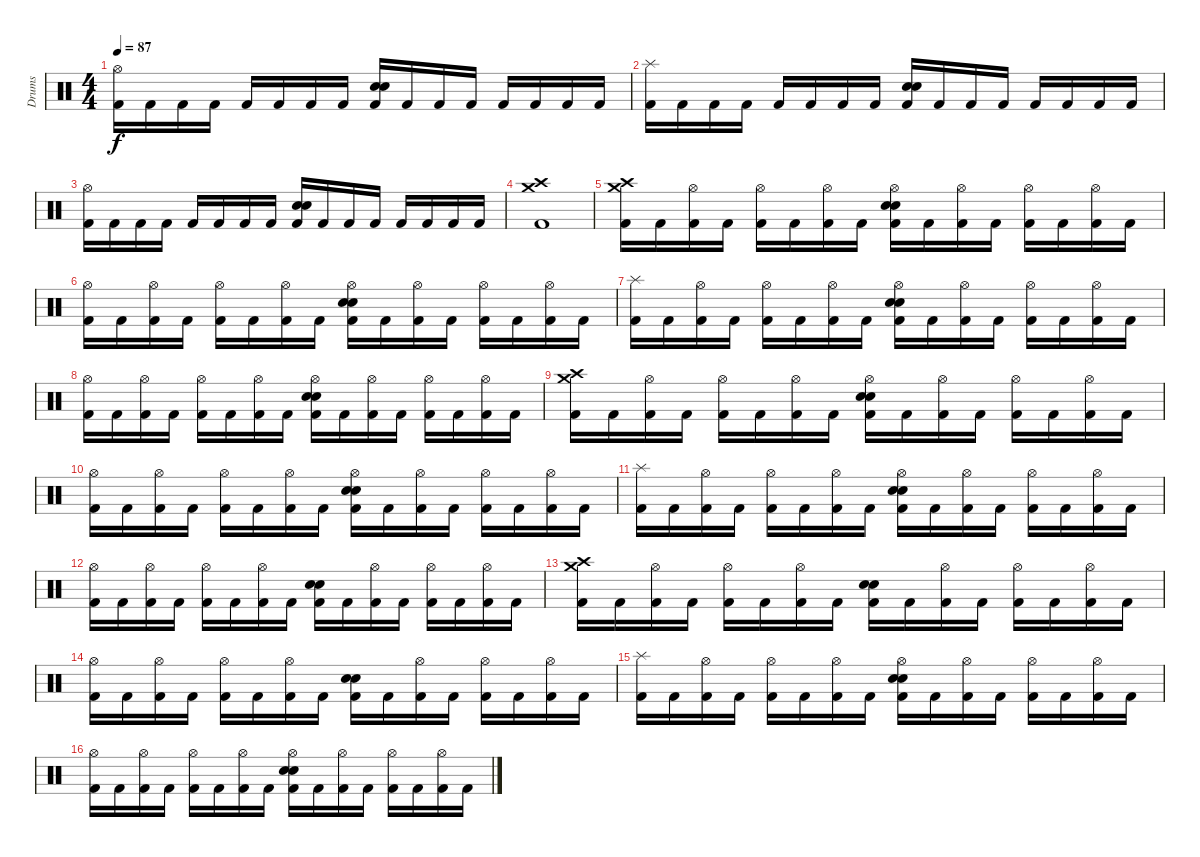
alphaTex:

\track ("Drums" "Drums") {instrument percussion}
\staff {score}
\articulation defaults
\ts (4 4)
\tempo 87
\clef neutral
\ks c
("Kick (hit) 2" "Hi-Hat (open)").16{dy f} "Kick (hit) 2".16 "Kick (hit) 2".16 "Kick (hit) 2".16 "Kick (hit) 2".16 "Kick (hit) 2".16 "Kick (hit) 2".16 "Kick (hit) 2".16 ("Kick (hit) 2" "Electric Snare (hit)" "Electric Snare (hit)").16 "Kick (hit) 2".16 "Kick (hit) 2".16 "Kick (hit) 2".16 "Kick (hit) 2".16 "Kick (hit) 2".16 "Kick (hit) 2".16 "Kick (hit) 2".16 |
("Kick (hit) 2" "Splash (hit)").16 "Kick (hit) 2".16 "Kick (hit) 2".16 "Kick (hit) 2".16 "Kick (hit) 2".16 "Kick (hit) 2".16 "Kick (hit) 2".16 "Kick (hit) 2".16 ("Kick (hit) 2" "Snare (hit) 2" "Snare (hit) 2").16 "Kick (hit) 2".16 "Kick (hit) 2".16 "Kick (hit) 2".16 "Kick (hit) 2".16 "Kick (hit) 2".16 "Kick (hit) 2".16 "Kick (hit) 2".16 |
("Kick (hit) 2" "Hi-Hat (open)").16 "Kick (hit) 2".16 "Kick (hit) 2".16 "Kick (hit) 2".16 "Kick (hit) 2".16 "Kick (hit) 2".16 "Kick (hit) 2".16 "Kick (hit) 2".16 ("Kick (hit) 2" "Electric Snare (hit)" "Electric Snare (hit)").16 "Kick (hit) 2".16 "Kick (hit) 2".16 "Kick (hit) 2".16 "Kick (hit) 2".16 "Kick (hit) 2".16 "Kick (hit) 2".16 "Kick (hit) 2".16 |
("Kick (hit) 2" "Crash medium (hit)" "Crash high (hit)").1 |
("Kick (hit) 2" "Crash medium (hit)" "Crash high (hit)").16 "Kick (hit) 2".16 ("Kick (hit) 2" "Hi-Hat (open)").16 "Kick (hit) 2".16 ("Kick (hit) 2" "Hi-Hat (open)").16 "Kick (hit) 2".16 ("Kick (hit) 2" "Hi-Hat (open)").16 "Kick (hit) 2".16 ("Kick (hit) 2" "Snare (hit) 2" "Snare (hit) 2" "Hi-Hat (open)").16 "Kick (hit) 2".16 ("Kick (hit) 2" "Hi-Hat (open)").16 "Kick (hit) 2".16 ("Kick (hit) 2" "Hi-Hat (open)").16 "Kick (hit) 2".16 ("Kick (hit) 2" "Hi-Hat (open)").16 "Kick (hit) 2".16 |
("Kick (hit) 2" "Hi-Hat (open)").16 "Kick (hit) 2".16 ("Kick (hit) 2" "Hi-Hat (open)").16 "Kick (hit) 2".16 ("Kick (hit) 2" "Hi-Hat (open)").16 "Kick (hit) 2".16 ("Kick (hit) 2" "Hi-Hat (open)").16 "Kick (hit) 2".16 ("Kick (hit) 2" "Electric Snare (hit)" "Electric Snare (hit)" "Hi-Hat (open)").16 "Kick (hit) 2".16 ("Kick (hit) 2" "Hi-Hat (open)").16 "Kick (hit) 2".16 ("Kick (hit) 2" "Hi-Hat (open)").16 "Kick (hit) 2".16 ("Kick (hit) 2" "Hi-Hat (open)").16 "Kick (hit) 2".16 |
("Kick (hit) 2" "Splash (hit)").16 "Kick (hit) 2".16 ("Kick (hit) 2" "Hi-Hat (open)").16 "Kick (hit) 2".16 ("Kick (hit) 2" "Hi-Hat (open)").16 "Kick (hit) 2".16 ("Kick (hit) 2" "Hi-Hat (open)").16 "Kick (hit) 2".16 ("Kick (hit) 2" "Snare (hit) 2" "Snare (hit) 2" "Hi-Hat (open)").16 "Kick (hit) 2".16 ("Kick (hit) 2" "Hi-Hat (open)").16 "Kick (hit) 2".16 ("Kick (hit) 2" "Hi-Hat (open)").16 "Kick (hit) 2".16 ("Kick (hit) 2" "Hi-Hat (open)").16 "Kick (hit) 2".16 |
("Kick (hit) 2" "Hi-Hat (open)").16 "Kick (hit) 2".16 ("Kick (hit) 2" "Hi-Hat (open)").16 "Kick (hit) 2".16 ("Kick (hit) 2" "Hi-Hat (open)").16 "Kick (hit) 2".16 ("Kick (hit) 2" "Hi-Hat (open)").16 "Kick (hit) 2".16 ("Kick (hit) 2" "Electric Snare (hit)" "Electric Snare (hit)" "Hi-Hat (open)").16 "Kick (hit) 2".16 ("Kick (hit) 2" "Hi-Hat (open)").16 "Kick (hit) 2".16 ("Kick (hit) 2" "Hi-Hat (open)").16 "Kick (hit) 2".16 ("Kick (hit) 2" "Hi-Hat (open)").16 "Kick (hit) 2".16 |
("Kick (hit) 2" "Crash medium (hit)" "Crash high (hit)").16 "Kick (hit) 2".16 ("Kick (hit) 2" "Hi-Hat (open)").16 "Kick (hit) 2".16 ("Kick (hit) 2" "Hi-Hat (open)").16 "Kick (hit) 2".16 ("Kick (hit) 2" "Hi-Hat (open)").16 "Kick (hit) 2".16 ("Kick (hit) 2" "Snare (hit) 2" "Snare (hit) 2" "Hi-Hat (open)").16 "Kick (hit) 2".16 ("Kick (hit) 2" "Hi-Hat (open)").16 "Kick (hit) 2".16 ("Kick (hit) 2" "Hi-Hat (open)").16 "Kick (hit) 2".16 ("Kick (hit) 2" "Hi-Hat (open)").16 "Kick (hit) 2".16 |
("Kick (hit) 2" "Hi-Hat (open)").16 "Kick (hit) 2".16 ("Kick (hit) 2" "Hi-Hat (open)").16 "Kick (hit) 2".16 ("Kick (hit) 2" "Hi-Hat (open)").16 "Kick (hit) 2".16 ("Kick (hit) 2" "Hi-Hat (open)").16 "Kick (hit) 2".16 ("Kick (hit) 2" "Electric Snare (hit)" "Electric Snare (hit)" "Hi-Hat (open)").16 "Kick (hit) 2".16 ("Kick (hit) 2" "Hi-Hat (open)").16 "Kick (hit) 2".16 ("Kick (hit) 2" "Hi-Hat (open)").16 "Kick (hit) 2".16 ("Kick (hit) 2" "Hi-Hat (open)").16 "Kick (hit) 2".16 |
("Kick (hit) 2" "Splash (hit)").16 "Kick (hit) 2".16 ("Kick (hit) 2" "Hi-Hat (open)").16 "Kick (hit) 2".16 ("Kick (hit) 2" "Hi-Hat (open)").16 "Kick (hit) 2".16 ("Kick (hit) 2" "Hi-Hat (open)").16 "Kick (hit) 2".16 ("Kick (hit) 2" "Snare (hit) 2" "Snare (hit) 2" "Hi-Hat (open)").16 "Kick (hit) 2".16 ("Kick (hit) 2" "Hi-Hat (open)").16 "Kick (hit) 2".16 ("Kick (hit) 2" "Hi-Hat (open)").16 "Kick (hit) 2".16 ("Kick (hit) 2" "Hi-Hat (open)").16 "Kick (hit) 2".16 |
("Kick (hit) 2" "Hi-Hat (open)").16 "Kick (hit) 2".16 ("Kick (hit) 2" "Hi-Hat (open)").16 "Kick (hit) 2".16 ("Kick (hit) 2" "Hi-Hat (open)").16 "Kick (hit) 2".16 ("Kick (hit) 2" "Hi-Hat (open)").16 "Kick (hit) 2".16 ("Kick (hit) 2" "Electric Snare (hit)" "Electric Snare (hit)").16 "Kick (hit) 2".16 ("Kick (hit) 2" "Hi-Hat (open)").16 "Kick (hit) 2".16 ("Kick (hit) 2" "Hi-Hat (open)").16 "Kick (hit) 2".16 ("Kick (hit) 2" "Hi-Hat (open)").16 "Kick (hit) 2".16 |
("Kick (hit) 2" "Crash medium (hit)" "Crash high (hit)").16 "Kick (hit) 2".16 ("Kick (hit) 2" "Hi-Hat (open)").16 "Kick (hit) 2".16 ("Kick (hit) 2" "Hi-Hat (open)").16 "Kick (hit) 2".16 ("Kick (hit) 2" "Hi-Hat (open)").16 "Kick (hit) 2".16 ("Kick (hit) 2" "Snare (hit) 2" "Snare (hit) 2").16 "Kick (hit) 2".16 ("Kick (hit) 2" "Hi-Hat (open)").16 "Kick (hit) 2".16 ("Kick (hit) 2" "Hi-Hat (open)").16 "Kick (hit) 2".16 ("Kick (hit) 2" "Hi-Hat (open)").16 "Kick (hit) 2".16 |
("Kick (hit) 2" "Hi-Hat (open)").16 "Kick (hit) 2".16 ("Kick (hit) 2" "Hi-Hat (open)").16 "Kick (hit) 2".16 ("Kick (hit) 2" "Hi-Hat (open)").16 "Kick (hit) 2".16 ("Kick (hit) 2" "Hi-Hat (open)").16 "Kick (hit) 2".16 ("Kick (hit) 2" "Electric Snare (hit)" "Electric Snare (hit)").16 "Kick (hit) 2".16 ("Kick (hit) 2" "Hi-Hat (open)").16 "Kick (hit) 2".16 ("Kick (hit) 2" "Hi-Hat (open)").16 "Kick (hit) 2".16 ("Kick (hit) 2" "Hi-Hat (open)").16 "Kick (hit) 2".16 |
("Kick (hit) 2" "Splash (hit)").16 "Kick (hit) 2".16 ("Kick (hit) 2" "Hi-Hat (open)").16 "Kick (hit) 2".16 ("Kick (hit) 2" "Hi-Hat (open)").16 "Kick (hit) 2".16 ("Kick (hit) 2" "Hi-Hat (open)").16 "Kick (hit) 2".16 ("Kick (hit) 2" "Snare (hit) 2" "Snare (hit) 2" "Hi-Hat (open)").16 "Kick (hit) 2".16 ("Kick (hit) 2" "Hi-Hat (open)").16 "Kick (hit) 2".16 ("Kick (hit) 2" "Hi-Hat (open)").16 "Kick (hit) 2".16 ("Kick (hit) 2" "Hi-Hat (open)").16 "Kick (hit) 2".16 |
("Kick (hit) 2" "Hi-Hat (open)").16 "Kick (hit) 2".16 ("Kick (hit) 2" "Hi-Hat (open)").16 "Kick (hit) 2".16 ("Kick (hit) 2" "Hi-Hat (open)").16 "Kick (hit) 2".16 ("Kick (hit) 2" "Hi-Hat (open)").16 "Kick (hit) 2".16 ("Kick (hit) 2" "Electric Snare (hit)" "Electric Snare (hit)" "Hi-Hat (open)").16 "Kick (hit) 2".16 ("Kick (hit) 2" "Hi-Hat (open)").16 "Kick (hit) 2".16 ("Kick (hit) 2" "Hi-Hat (open)").16 "Kick (hit) 2".16 ("Kick (hit) 2" "Hi-Hat (open)").16 "Kick (hit) 2".16
